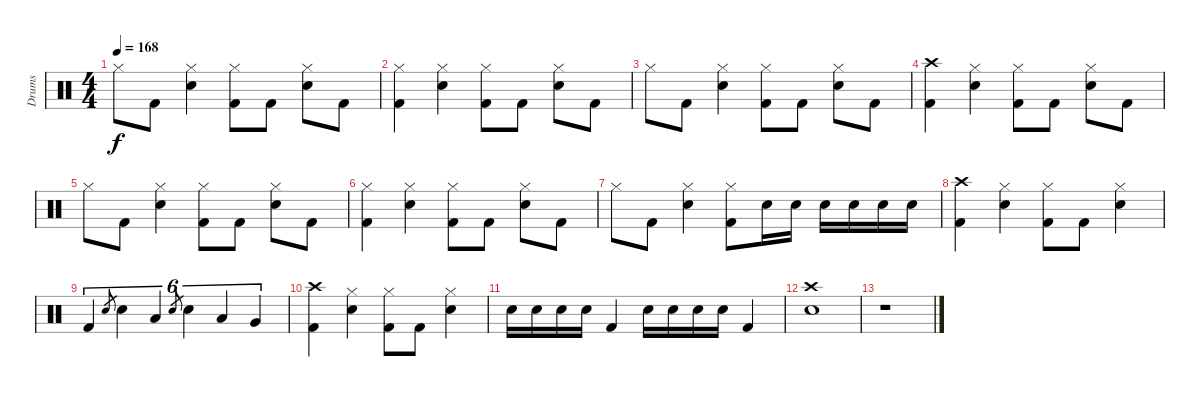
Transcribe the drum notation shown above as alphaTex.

\track ("Drums" "Drums") {instrument percussion}
\staff {score}
\articulation defaults
\ts (4 4)
\tempo 168
\clef neutral
\ks c "Hi-Hat (closed)".8{dy f} "Kick (hit) 2".8
("Hi-Hat (closed)" "Electric Snare (hit)").4 ("Hi-Hat (closed)" "Kick (hit) 2").8 "Kick (hit) 2".8 ("Hi-Hat (closed)" "Electric Snare (hit)").8 "Kick (hit) 2".8 |
("Hi-Hat (closed)" "Kick (hit) 2").4 ("Hi-Hat (closed)" "Electric Snare (hit)").4 ("Hi-Hat (closed)" "Kick (hit) 2").8 "Kick (hit) 2".8 ("Hi-Hat (closed)" "Electric Snare (hit)").8 "Kick (hit) 2".8 |
"Hi-Hat (closed)".8 "Kick (hit) 2".8 ("Hi-Hat (closed)" "Electric Snare (hit)").4 ("Hi-Hat (closed)" "Kick (hit) 2").8 "Kick (hit) 2".8 ("Hi-Hat (closed)" "Electric Snare (hit)").8 "Kick (hit) 2".8 |
("Crash high (hit)" "Kick (hit) 2").4 ("Hi-Hat (closed)" "Electric Snare (hit)").4 ("Hi-Hat (closed)" "Kick (hit) 2").8 "Kick (hit) 2".8 ("Hi-Hat (closed)" "Electric Snare (hit)").8 "Kick (hit) 2".8 |
"Hi-Hat (closed)".8 "Kick (hit) 2".8 ("Hi-Hat (closed)" "Electric Snare (hit)").4 ("Hi-Hat (closed)" "Kick (hit) 2").8 "Kick (hit) 2".8 ("Hi-Hat (closed)" "Electric Snare (hit)").8 "Kick (hit) 2".8 |
("Hi-Hat (closed)" "Kick (hit) 2").4 ("Hi-Hat (closed)" "Electric Snare (hit)").4 ("Hi-Hat (closed)" "Kick (hit) 2").8 "Kick (hit) 2".8 ("Hi-Hat (closed)" "Electric Snare (hit)").8 "Kick (hit) 2".8 |
"Hi-Hat (closed)".8 "Kick (hit) 2".8 ("Hi-Hat (closed)" "Electric Snare (hit)").4 ("Hi-Hat (closed)" "Kick (hit) 2").8 "Electric Snare (hit)".16 "Electric Snare (hit)".16 "Electric Snare (hit)".16 "Electric Snare (hit)".16 "Electric Snare (hit)".16 "Electric Snare (hit)".16 |
("Crash high (hit)" "Kick (hit) 2").4 ("Hi-Hat (closed)" "Electric Snare (hit)").4 ("Hi-Hat (closed)" "Kick (hit) 2").8 "Kick (hit) 2".8 ("Hi-Hat (closed)" "Electric Snare (hit)").4 |
"Kick (hit) 2".4{tu (6 4)} "Electric Snare (hit)".8{gr} "Electric Snare (hit)".4{tu (6 4)} "Low Tom (hit)".4{tu (6 4)} "Electric Snare (hit)".8{gr} "Electric Snare (hit)".4{tu (6 4)} "Low Tom (hit)".4{tu (6 4)} "Very Low Tom (hit)".4{tu (6 4)} |
("Crash high (hit)" "Kick (hit) 2").4 ("Hi-Hat (closed)" "Electric Snare (hit)").4 ("Hi-Hat (closed)" "Kick (hit) 2").8 "Kick (hit) 2".8 ("Hi-Hat (closed)" "Electric Snare (hit)").4 |
"Electric Snare (hit)".16 "Electric Snare (hit)".16 "Electric Snare (hit)".16 "Electric Snare (hit)".16 "Kick (hit) 2".4 "Electric Snare (hit)".16 "Electric Snare (hit)".16 "Electric Snare (hit)".16 "Electric Snare (hit)".16 "Kick (hit) 2".4 |
("Crash high (hit)" "Electric Snare (hit)").1 |
r.1
